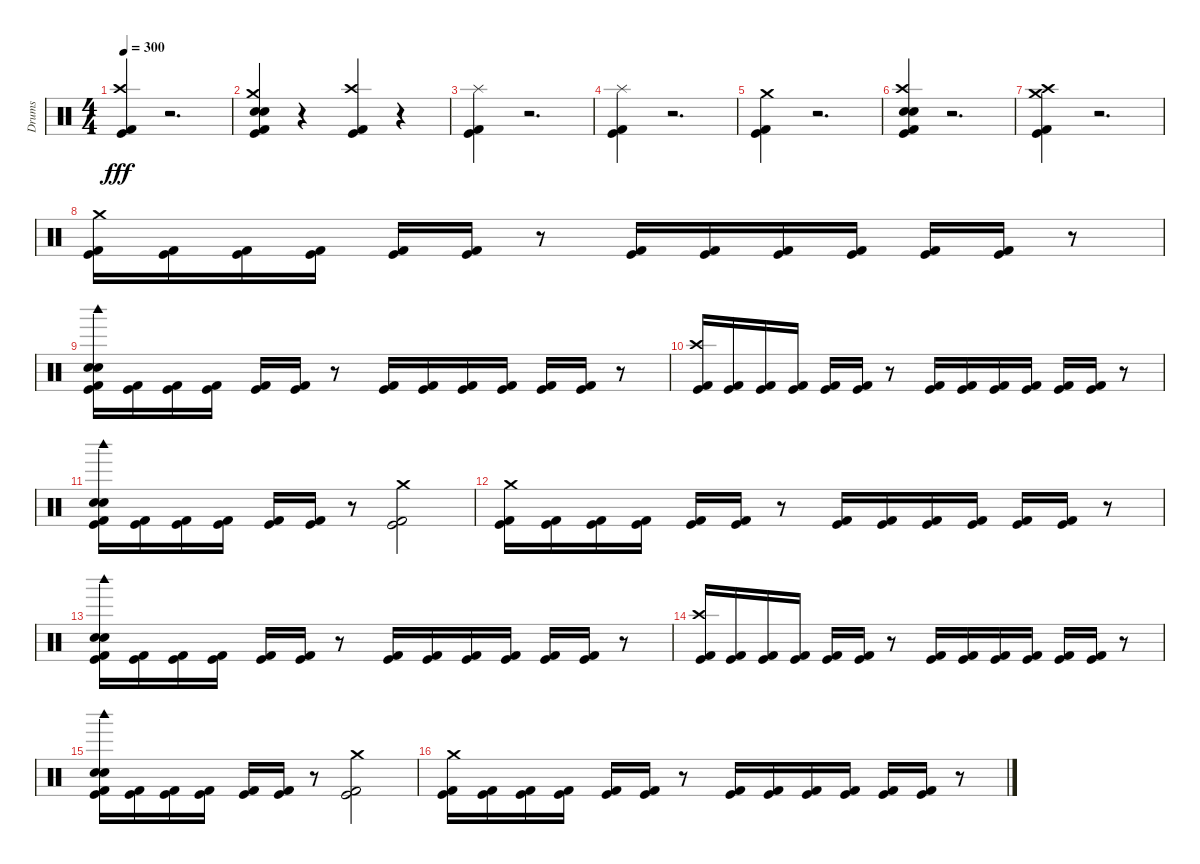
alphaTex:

\track ("Drums" "Drums") {instrument percussion}
\staff {score}
\articulation defaults
\ts (4 4)
\tempo 300
\clef neutral
\ks c
("Kick (hit) 2" "Crash high (hit)" "Kick (hit)").4{dy fff} r.2{d} |
("Crash medium (hit)" "Kick (hit) 2" "Snare (hit) 2" "Electric Snare (hit)" "Kick (hit)").4 r.4 ("Kick (hit) 2" "Crash high (hit)" "Kick (hit)").4 r.4 |
("Splash (hit)" "Kick (hit) 2" "Kick (hit)").4 r.2{d} |
("Splash (hit)" "Kick (hit) 2" "Kick (hit)").4 r.2{d} |
("Crash medium (hit)" "Kick (hit) 2" "Kick (hit)").4 r.2{d} |
("Kick (hit) 2" "Snare (hit) 2" "Electric Snare (hit)" "Crash high (hit)" "Kick (hit)").4 r.2{d} |
("Crash medium (hit)" "Kick (hit) 2" "Crash high (hit)" "Kick (hit)").4 r.2{d} |
("Kick (hit) 2" "Crash medium (hit)" "Kick (hit)").16 ("Kick (hit) 2" "Kick (hit)").16 ("Kick (hit) 2" "Kick (hit)").16 ("Kick (hit) 2" "Kick (hit)").16 ("Kick (hit) 2" "Kick (hit)").16 ("Kick (hit) 2" "Kick (hit)").16 r.8 ("Kick (hit)" "Kick (hit) 2").16 ("Kick (hit)" "Kick (hit) 2").16 ("Kick (hit)" "Kick (hit) 2").16 ("Kick (hit)" "Kick (hit) 2").16 ("Kick (hit)" "Kick (hit) 2").16 ("Kick (hit)" "Kick (hit) 2").16 r.8 |
("Kick (hit)" "Electric Snare (hit)" "Snare (hit) 2" "Woodblock high (hit)" "Kick (hit) 2").16 ("Kick (hit)" "Kick (hit) 2").16 ("Kick (hit)" "Kick (hit) 2").16 ("Kick (hit)" "Kick (hit) 2").16 ("Kick (hit)" "Kick (hit) 2").16 ("Kick (hit)" "Kick (hit) 2").16 r.8 ("Kick (hit)" "Kick (hit) 2").16 ("Kick (hit)" "Kick (hit) 2").16 ("Kick (hit)" "Kick (hit) 2").16 ("Kick (hit)" "Kick (hit) 2").16 ("Kick (hit)" "Kick (hit) 2").16 ("Kick (hit)" "Kick (hit) 2").16 r.8 |
("Kick (hit)" "Crash high (hit)" "Kick (hit) 2").16 ("Kick (hit)" "Kick (hit) 2").16 ("Kick (hit)" "Kick (hit) 2").16 ("Kick (hit)" "Kick (hit) 2").16 ("Kick (hit)" "Kick (hit) 2").16 ("Kick (hit)" "Kick (hit) 2").16 r.8 ("Kick (hit)" "Kick (hit) 2").16 ("Kick (hit)" "Kick (hit) 2").16 ("Kick (hit)" "Kick (hit) 2").16 ("Kick (hit)" "Kick (hit) 2").16 ("Kick (hit)" "Kick (hit) 2").16 ("Kick (hit)" "Kick (hit) 2").16 r.8 |
("Kick (hit)" "Electric Snare (hit)" "Snare (hit) 2" "Woodblock high (hit)" "Kick (hit) 2").16 ("Kick (hit)" "Kick (hit) 2").16 ("Kick (hit)" "Kick (hit) 2").16 ("Kick (hit)" "Kick (hit) 2").16 ("Kick (hit)" "Kick (hit) 2").16 ("Kick (hit)" "Kick (hit) 2").16 r.8 ("Kick (hit) 2" "Crash medium (hit)" "Kick (hit)").2 |
("Kick (hit) 2" "Crash medium (hit)" "Kick (hit)").16 ("Kick (hit) 2" "Kick (hit)").16 ("Kick (hit) 2" "Kick (hit)").16 ("Kick (hit) 2" "Kick (hit)").16 ("Kick (hit) 2" "Kick (hit)").16 ("Kick (hit) 2" "Kick (hit)").16 r.8 ("Kick (hit)" "Kick (hit) 2").16 ("Kick (hit)" "Kick (hit) 2").16 ("Kick (hit)" "Kick (hit) 2").16 ("Kick (hit)" "Kick (hit) 2").16 ("Kick (hit)" "Kick (hit) 2").16 ("Kick (hit)" "Kick (hit) 2").16 r.8 |
("Kick (hit)" "Electric Snare (hit)" "Snare (hit) 2" "Woodblock high (hit)" "Kick (hit) 2").16 ("Kick (hit)" "Kick (hit) 2").16 ("Kick (hit)" "Kick (hit) 2").16 ("Kick (hit)" "Kick (hit) 2").16 ("Kick (hit)" "Kick (hit) 2").16 ("Kick (hit)" "Kick (hit) 2").16 r.8 ("Kick (hit)" "Kick (hit) 2").16 ("Kick (hit)" "Kick (hit) 2").16 ("Kick (hit)" "Kick (hit) 2").16 ("Kick (hit)" "Kick (hit) 2").16 ("Kick (hit)" "Kick (hit) 2").16 ("Kick (hit)" "Kick (hit) 2").16 r.8 |
("Kick (hit)" "Crash high (hit)" "Kick (hit) 2").16 ("Kick (hit)" "Kick (hit) 2").16 ("Kick (hit)" "Kick (hit) 2").16 ("Kick (hit)" "Kick (hit) 2").16 ("Kick (hit)" "Kick (hit) 2").16 ("Kick (hit)" "Kick (hit) 2").16 r.8 ("Kick (hit)" "Kick (hit) 2").16 ("Kick (hit)" "Kick (hit) 2").16 ("Kick (hit)" "Kick (hit) 2").16 ("Kick (hit)" "Kick (hit) 2").16 ("Kick (hit)" "Kick (hit) 2").16 ("Kick (hit)" "Kick (hit) 2").16 r.8 |
("Kick (hit)" "Electric Snare (hit)" "Snare (hit) 2" "Woodblock high (hit)" "Kick (hit) 2").16 ("Kick (hit)" "Kick (hit) 2").16 ("Kick (hit)" "Kick (hit) 2").16 ("Kick (hit)" "Kick (hit) 2").16 ("Kick (hit)" "Kick (hit) 2").16 ("Kick (hit)" "Kick (hit) 2").16 r.8 ("Kick (hit) 2" "Crash medium (hit)" "Kick (hit)").2 |
("Kick (hit) 2" "Crash medium (hit)" "Kick (hit)").16 ("Kick (hit) 2" "Kick (hit)").16 ("Kick (hit) 2" "Kick (hit)").16 ("Kick (hit) 2" "Kick (hit)").16 ("Kick (hit) 2" "Kick (hit)").16 ("Kick (hit) 2" "Kick (hit)").16 r.8 ("Kick (hit)" "Kick (hit) 2").16 ("Kick (hit)" "Kick (hit) 2").16 ("Kick (hit)" "Kick (hit) 2").16 ("Kick (hit)" "Kick (hit) 2").16 ("Kick (hit)" "Kick (hit) 2").16 ("Kick (hit)" "Kick (hit) 2").16 r.8
